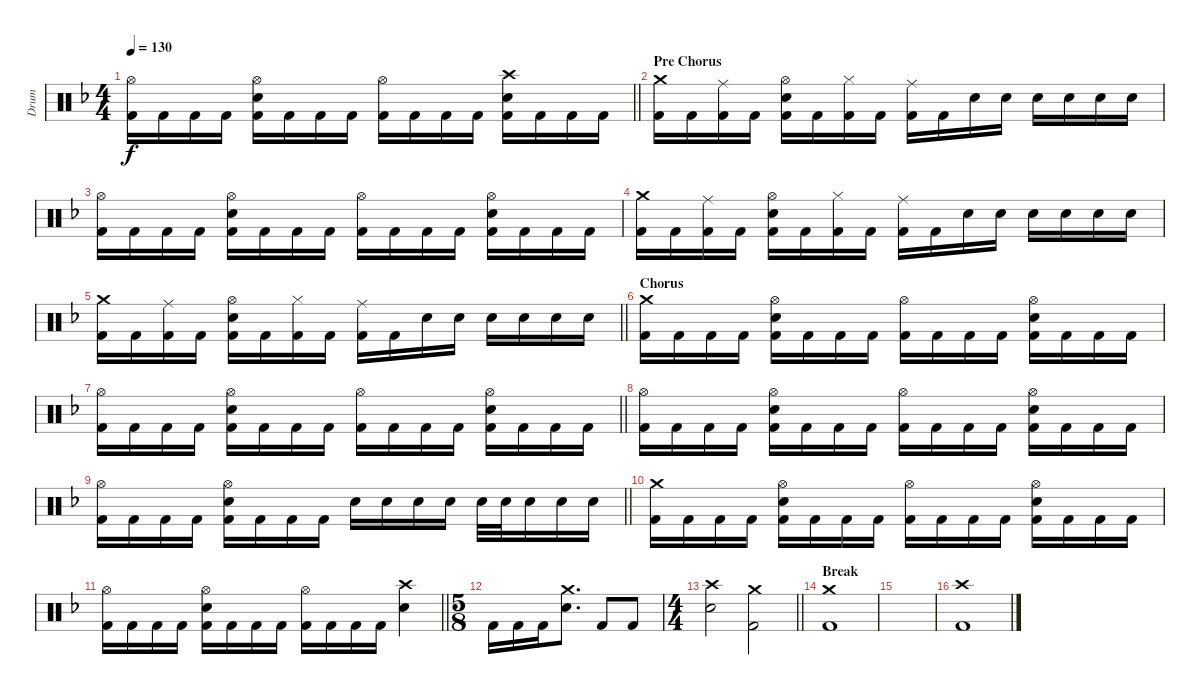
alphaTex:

\track ("Drum" "Drum") {instrument percussion}
\staff {score}
\articulation defaults
\ts (4 4)
\tempo 130
\clef neutral
\barLineRight lightlight
\ks f
("Hi-Hat (open)" "Kick (hit) 2").16{dy f} "Kick (hit) 2".16 "Kick (hit) 2".16 "Kick (hit) 2".16 ("Hi-Hat (open)" "Electric Snare (hit)" "Kick (hit) 2").16 "Kick (hit) 2".16 "Kick (hit) 2".16 "Kick (hit) 2".16 ("Hi-Hat (open)" "Kick (hit) 2").16 "Kick (hit) 2".16 "Kick (hit) 2".16 "Kick (hit) 2".16 ("Crash high (hit)" "Electric Snare (hit)" "Kick (hit) 2").16 "Kick (hit) 2".16 "Kick (hit) 2".16 "Kick (hit) 2".16 |
\section ("" "Pre Chorus")
("Crash medium (hit)" "Kick (hit) 2").16 "Kick (hit) 2".16 ("Ride (middle)" "Kick (hit) 2").16 "Kick (hit) 2".16 ("Hi-Hat (open)" "Electric Snare (hit)" "Kick (hit) 2").16 "Kick (hit) 2".16 ("Hi-Hat (closed)" "Kick (hit) 2").16 "Kick (hit) 2".16 ("Ride (middle)" "Kick (hit) 2").16 "Kick (hit) 2".16 "Electric Snare (hit)".16 "Electric Snare (hit)".16 "Electric Snare (hit)".16 "Electric Snare (hit)".16 "Electric Snare (hit)".16 "Electric Snare (hit)".16 |
("Hi-Hat (open)" "Kick (hit) 2").16 "Kick (hit) 2".16 "Kick (hit) 2".16 "Kick (hit) 2".16 ("Hi-Hat (open)" "Electric Snare (hit)" "Kick (hit) 2").16 "Kick (hit) 2".16 "Kick (hit) 2".16 "Kick (hit) 2".16 ("Hi-Hat (open)" "Kick (hit) 2").16 "Kick (hit) 2".16 "Kick (hit) 2".16 "Kick (hit) 2".16 ("Hi-Hat (open)" "Electric Snare (hit)" "Kick (hit) 2").16 "Kick (hit) 2".16 "Kick (hit) 2".16 "Kick (hit) 2".16 |
("Crash medium (hit)" "Kick (hit) 2").16 "Kick (hit) 2".16 ("Ride (middle)" "Kick (hit) 2").16 "Kick (hit) 2".16 ("Hi-Hat (open)" "Electric Snare (hit)" "Kick (hit) 2").16 "Kick (hit) 2".16 ("Hi-Hat (closed)" "Kick (hit) 2").16 "Kick (hit) 2".16 ("Ride (middle)" "Kick (hit) 2").16 "Kick (hit) 2".16 "Electric Snare (hit)".16 "Electric Snare (hit)".16 "Electric Snare (hit)".16 "Electric Snare (hit)".16 "Electric Snare (hit)".16 "Electric Snare (hit)".16 |
\barLineRight lightlight
("Crash medium (hit)" "Kick (hit) 2").16 "Kick (hit) 2".16 ("Ride (middle)" "Kick (hit) 2").16 "Kick (hit) 2".16 ("Hi-Hat (open)" "Electric Snare (hit)" "Kick (hit) 2").16 "Kick (hit) 2".16 ("Hi-Hat (closed)" "Kick (hit) 2").16 "Kick (hit) 2".16 ("Ride (middle)" "Kick (hit) 2").16 "Kick (hit) 2".16 "Electric Snare (hit)".16 "Electric Snare (hit)".16 "Electric Snare (hit)".16 "Electric Snare (hit)".16 "Electric Snare (hit)".16 "Electric Snare (hit)".16 |
\section ("" "Chorus")
("Crash medium (hit)" "Kick (hit) 2").16 "Kick (hit) 2".16 "Kick (hit) 2".16 "Kick (hit) 2".16 ("Hi-Hat (open)" "Electric Snare (hit)" "Kick (hit) 2").16 "Kick (hit) 2".16 "Kick (hit) 2".16 "Kick (hit) 2".16 ("Hi-Hat (open)" "Kick (hit) 2").16 "Kick (hit) 2".16 "Kick (hit) 2".16 "Kick (hit) 2".16 ("Hi-Hat (open)" "Electric Snare (hit)" "Kick (hit) 2").16 "Kick (hit) 2".16 "Kick (hit) 2".16 "Kick (hit) 2".16 |
\barLineRight lightlight
("Hi-Hat (open)" "Kick (hit) 2").16 "Kick (hit) 2".16 "Kick (hit) 2".16 "Kick (hit) 2".16 ("Hi-Hat (open)" "Electric Snare (hit)" "Kick (hit) 2").16 "Kick (hit) 2".16 "Kick (hit) 2".16 "Kick (hit) 2".16 ("Hi-Hat (open)" "Kick (hit) 2").16 "Kick (hit) 2".16 "Kick (hit) 2".16 "Kick (hit) 2".16 ("Hi-Hat (open)" "Electric Snare (hit)" "Kick (hit) 2").16 "Kick (hit) 2".16 "Kick (hit) 2".16 "Kick (hit) 2".16 |
("Hi-Hat (open)" "Kick (hit) 2").16 "Kick (hit) 2".16 "Kick (hit) 2".16 "Kick (hit) 2".16 ("Hi-Hat (open)" "Electric Snare (hit)" "Kick (hit) 2").16 "Kick (hit) 2".16 "Kick (hit) 2".16 "Kick (hit) 2".16 ("Hi-Hat (open)" "Kick (hit) 2").16 "Kick (hit) 2".16 "Kick (hit) 2".16 "Kick (hit) 2".16 ("Hi-Hat (open)" "Electric Snare (hit)" "Kick (hit) 2").16 "Kick (hit) 2".16 "Kick (hit) 2".16 "Kick (hit) 2".16 |
\barLineRight lightlight
("Hi-Hat (open)" "Kick (hit) 2").16 "Kick (hit) 2".16 "Kick (hit) 2".16 "Kick (hit) 2".16 ("Hi-Hat (open)" "Electric Snare (hit)" "Kick (hit) 2").16 "Kick (hit) 2".16 "Kick (hit) 2".16 "Kick (hit) 2".16 "Electric Snare (hit)".16 "Electric Snare (hit)".16 "Electric Snare (hit)".16 "Electric Snare (hit)".16 "Electric Snare (hit)".32 "Electric Snare (hit)".32 "Electric Snare (hit)".16 "Electric Snare (hit)".16 "Electric Snare (hit)".16 |
("Crash medium (hit)" "Kick (hit) 2").16 "Kick (hit) 2".16 "Kick (hit) 2".16 "Kick (hit) 2".16 ("Hi-Hat (open)" "Electric Snare (hit)" "Kick (hit) 2").16 "Kick (hit) 2".16 "Kick (hit) 2".16 "Kick (hit) 2".16 ("Hi-Hat (open)" "Kick (hit) 2").16 "Kick (hit) 2".16 "Kick (hit) 2".16 "Kick (hit) 2".16 ("Hi-Hat (open)" "Electric Snare (hit)" "Kick (hit) 2").16 "Kick (hit) 2".16 "Kick (hit) 2".16 "Kick (hit) 2".16 |
\barLineRight lightlight
("Hi-Hat (open)" "Kick (hit) 2").16 "Kick (hit) 2".16 "Kick (hit) 2".16 "Kick (hit) 2".16 ("Hi-Hat (open)" "Electric Snare (hit)" "Kick (hit) 2").16 "Kick (hit) 2".16 "Kick (hit) 2".16 "Kick (hit) 2".16 ("Hi-Hat (open)" "Kick (hit) 2").16 "Kick (hit) 2".16 "Kick (hit) 2".16 "Kick (hit) 2".16 ("Crash high (hit)" "Electric Snare (hit)").4 |
\ts (5 8)
"Kick (hit) 2".16 "Kick (hit) 2".16 "Kick (hit) 2".16 ("Crash medium (hit)" "Electric Snare (hit)").8{d} "Kick (hit) 2".8 "Kick (hit) 2".8 |
\ts (4 4)
\barLineRight lightlight
("Crash high (hit)" "Electric Snare (hit)").2 ("Crash medium (hit)" "Kick (hit) 2").2 |
\section ("" "Break")
("Crash medium (hit)" "Kick (hit) 2").1 |
|
("Crash high (hit)" "Kick (hit) 2").1
